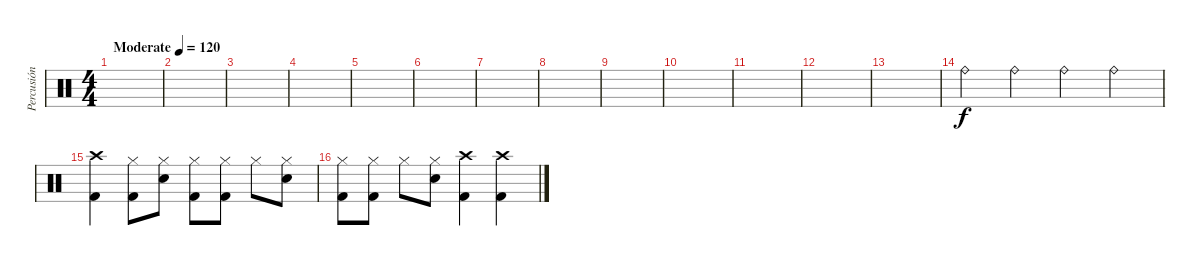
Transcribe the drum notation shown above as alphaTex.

\track ("Percusión" "Percusión") {instrument percussion}
\staff {score}
\articulation defaults
\ts (4 4)
\tempo (120 "Moderate")
\clef neutral
\ks c
|
|
|
|
|
|
|
|
|
|
|
|
|
"Ride (bell)".4 "Ride (bell)".4 "Ride (bell)".4 "Ride (bell)".4 |
("Crash high (hit)" "Kick (hit) 2").4 ("Hi-Hat (closed)" "Kick (hit) 2").8 ("Hi-Hat (closed)" "Snare (hit) 2").8 ("Hi-Hat (closed)" "Kick (hit) 2").8 ("Hi-Hat (closed)" "Kick (hit) 2").8 "Hi-Hat (closed)".8 ("Hi-Hat (closed)" "Snare (hit) 2").8 |
("Hi-Hat (closed)" "Kick (hit) 2").8 ("Hi-Hat (closed)" "Kick (hit) 2").8 "Hi-Hat (closed)".8 ("Hi-Hat (closed)" "Snare (hit) 2").8 ("Crash high (hit)" "Kick (hit) 2").4 ("Crash high (hit)" "Kick (hit) 2").4
